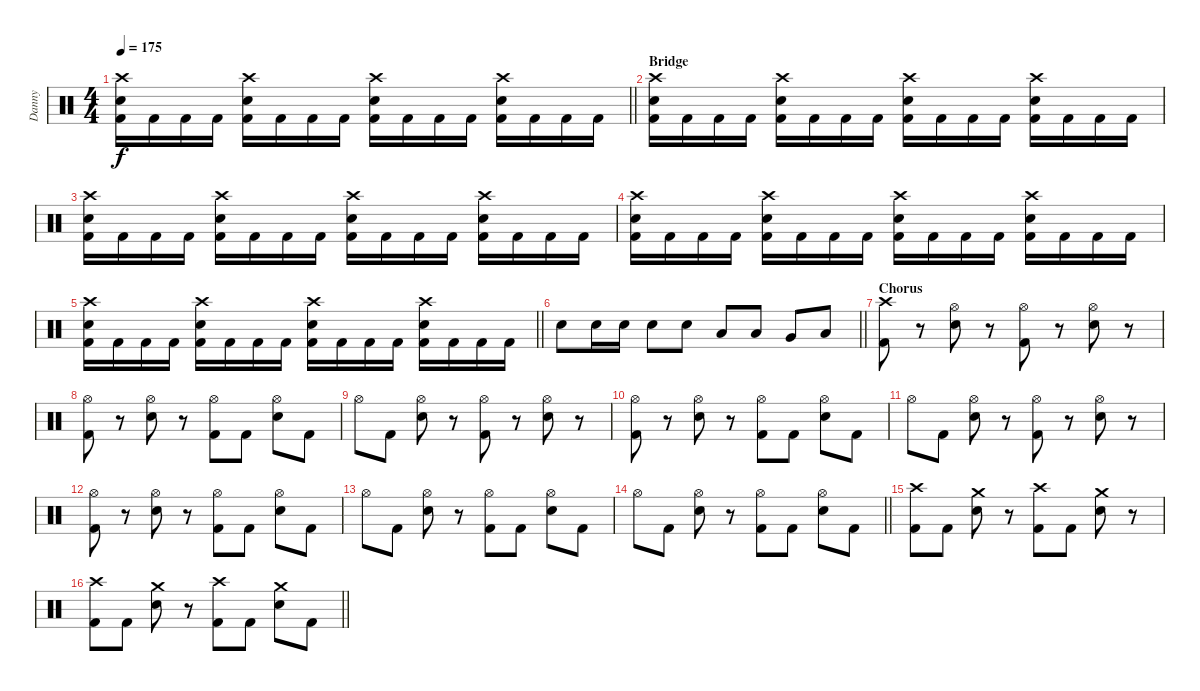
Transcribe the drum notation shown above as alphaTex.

\track ("Danny" "Danny") {instrument percussion}
\staff {score}
\articulation defaults
\ts (4 4)
\tempo 175
\clef neutral
\barLineRight lightlight
\ks c
("Crash high (hit)" "Electric Snare (hit)" "Kick (hit) 2").16{dy f} "Kick (hit) 2".16 "Kick (hit) 2".16 "Kick (hit) 2".16 ("Crash high (hit)" "Electric Snare (hit)" "Kick (hit) 2").16 "Kick (hit) 2".16 "Kick (hit) 2".16 "Kick (hit) 2".16 ("Crash high (hit)" "Electric Snare (hit)" "Kick (hit) 2").16 "Kick (hit) 2".16 "Kick (hit) 2".16 "Kick (hit) 2".16 ("Crash high (hit)" "Electric Snare (hit)" "Kick (hit) 2").16 "Kick (hit) 2".16 "Kick (hit) 2".16 "Kick (hit) 2".16 |
\section ("" "Bridge")
("Crash high (hit)" "Electric Snare (hit)" "Kick (hit) 2").16 "Kick (hit) 2".16 "Kick (hit) 2".16 "Kick (hit) 2".16 ("Crash high (hit)" "Electric Snare (hit)" "Kick (hit) 2").16 "Kick (hit) 2".16 "Kick (hit) 2".16 "Kick (hit) 2".16 ("Crash high (hit)" "Electric Snare (hit)" "Kick (hit) 2").16 "Kick (hit) 2".16 "Kick (hit) 2".16 "Kick (hit) 2".16 ("Crash high (hit)" "Electric Snare (hit)" "Kick (hit) 2").16 "Kick (hit) 2".16 "Kick (hit) 2".16 "Kick (hit) 2".16 |
("Crash high (hit)" "Electric Snare (hit)" "Kick (hit) 2").16 "Kick (hit) 2".16 "Kick (hit) 2".16 "Kick (hit) 2".16 ("Crash high (hit)" "Electric Snare (hit)" "Kick (hit) 2").16 "Kick (hit) 2".16 "Kick (hit) 2".16 "Kick (hit) 2".16 ("Crash high (hit)" "Electric Snare (hit)" "Kick (hit) 2").16 "Kick (hit) 2".16 "Kick (hit) 2".16 "Kick (hit) 2".16 ("Crash high (hit)" "Electric Snare (hit)" "Kick (hit) 2").16 "Kick (hit) 2".16 "Kick (hit) 2".16 "Kick (hit) 2".16 |
("Crash high (hit)" "Electric Snare (hit)" "Kick (hit) 2").16 "Kick (hit) 2".16 "Kick (hit) 2".16 "Kick (hit) 2".16 ("Crash high (hit)" "Electric Snare (hit)" "Kick (hit) 2").16 "Kick (hit) 2".16 "Kick (hit) 2".16 "Kick (hit) 2".16 ("Crash high (hit)" "Electric Snare (hit)" "Kick (hit) 2").16 "Kick (hit) 2".16 "Kick (hit) 2".16 "Kick (hit) 2".16 ("Crash high (hit)" "Electric Snare (hit)" "Kick (hit) 2").16 "Kick (hit) 2".16 "Kick (hit) 2".16 "Kick (hit) 2".16 |
\barLineRight lightlight
("Crash high (hit)" "Electric Snare (hit)" "Kick (hit) 2").16 "Kick (hit) 2".16 "Kick (hit) 2".16 "Kick (hit) 2".16 ("Crash high (hit)" "Electric Snare (hit)" "Kick (hit) 2").16 "Kick (hit) 2".16 "Kick (hit) 2".16 "Kick (hit) 2".16 ("Crash high (hit)" "Electric Snare (hit)" "Kick (hit) 2").16 "Kick (hit) 2".16 "Kick (hit) 2".16 "Kick (hit) 2".16 ("Crash high (hit)" "Electric Snare (hit)" "Kick (hit) 2").16 "Kick (hit) 2".16 "Kick (hit) 2".16 "Kick (hit) 2".16 |
\barLineRight lightlight "Electric Snare (hit)".8 "Electric Snare (hit)".16 "Electric Snare (hit)".16 "Electric Snare (hit)".8 "Electric Snare (hit)".8 "Low Tom (hit)".8 "Low Tom (hit)".8 "Very Low Tom (hit)".8 "Low Floor Tom (hit)".8
|
\section ("" "Chorus")
("Crash high (hit)" "Kick (hit) 2").8 r.8 ("Hi-Hat (open)" "Electric Snare (hit)").8 r.8 ("Hi-Hat (open)" "Kick (hit) 2").8 r.8 ("Hi-Hat (open)" "Electric Snare (hit)").8 r.8 |
("Hi-Hat (open)" "Kick (hit) 2").8 r.8 ("Hi-Hat (open)" "Electric Snare (hit)").8 r.8 ("Hi-Hat (open)" "Kick (hit) 2").8 "Kick (hit) 2".8 ("Hi-Hat (open)" "Electric Snare (hit)").8 "Kick (hit) 2".8 |
"Hi-Hat (open)".8 "Kick (hit) 2".8 ("Hi-Hat (open)" "Electric Snare (hit)").8 r.8 ("Hi-Hat (open)" "Kick (hit) 2").8 r.8 ("Hi-Hat (open)" "Electric Snare (hit)").8 r.8 |
("Hi-Hat (open)" "Kick (hit) 2").8 r.8 ("Hi-Hat (open)" "Electric Snare (hit)").8 r.8 ("Hi-Hat (open)" "Kick (hit) 2").8 "Kick (hit) 2".8 ("Hi-Hat (open)" "Electric Snare (hit)").8 "Kick (hit) 2".8 |
"Hi-Hat (open)".8 "Kick (hit) 2".8 ("Hi-Hat (open)" "Electric Snare (hit)").8 r.8 ("Hi-Hat (open)" "Kick (hit) 2").8 r.8 ("Hi-Hat (open)" "Electric Snare (hit)").8 r.8 |
("Hi-Hat (open)" "Kick (hit) 2").8 r.8 ("Hi-Hat (open)" "Electric Snare (hit)").8 r.8 ("Hi-Hat (open)" "Kick (hit) 2").8 "Kick (hit) 2".8 ("Hi-Hat (open)" "Electric Snare (hit)").8 "Kick (hit) 2".8 |
"Hi-Hat (open)".8 "Kick (hit) 2".8 ("Hi-Hat (open)" "Electric Snare (hit)").8 r.8 ("Hi-Hat (open)" "Kick (hit) 2").8 "Kick (hit) 2".8 ("Hi-Hat (open)" "Electric Snare (hit)").8 "Kick (hit) 2".8 |
\barLineRight lightlight "Hi-Hat (open)".8 "Kick (hit) 2".8
("Hi-Hat (open)" "Electric Snare (hit)").8 r.8 ("Hi-Hat (open)" "Kick (hit) 2").8 "Kick (hit) 2".8 ("Hi-Hat (open)" "Electric Snare (hit)").8 "Kick (hit) 2".8 |
("Crash high (hit)" "Kick (hit) 2").8 "Kick (hit) 2".8 ("Crash medium (hit)" "Electric Snare (hit)").8 r.8 ("Crash high (hit)" "Kick (hit) 2").8 "Kick (hit) 2".8 ("Crash medium (hit)" "Electric Snare (hit)").8 r.8 |
\barLineRight lightlight
("Crash high (hit)" "Kick (hit) 2").8 "Kick (hit) 2".8 ("Crash medium (hit)" "Electric Snare (hit)").8 r.8 ("Crash high (hit)" "Kick (hit) 2").8 "Kick (hit) 2".8 ("Crash medium (hit)" "Electric Snare (hit)").8 "Kick (hit) 2".8
